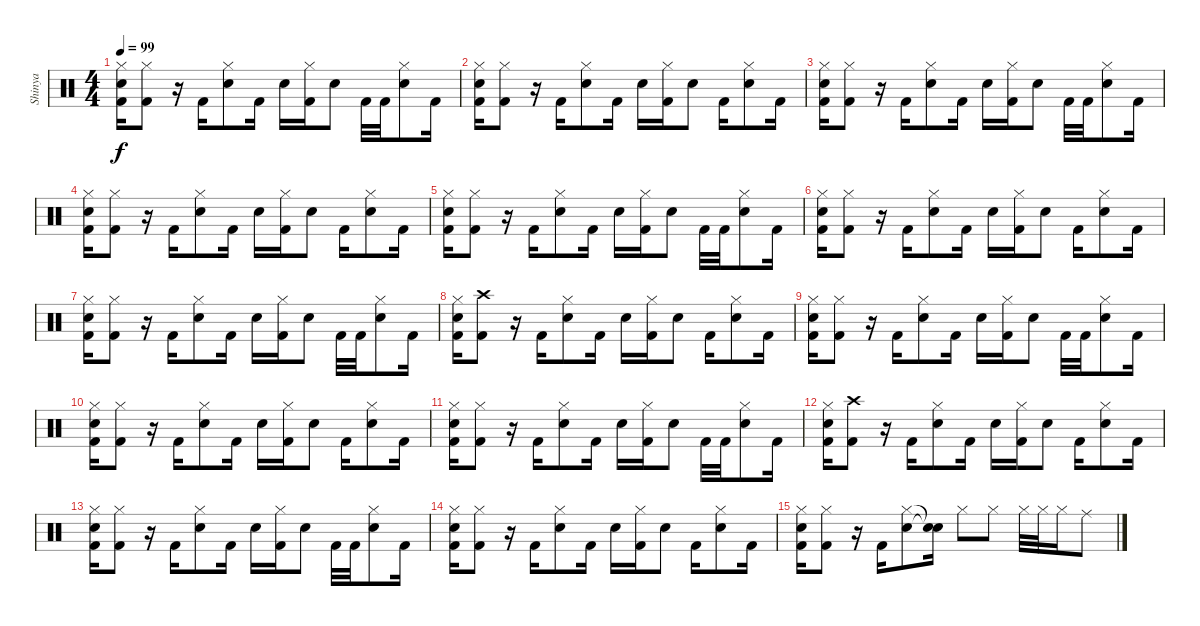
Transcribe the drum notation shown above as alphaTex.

\track ("Shinya" "Shinya") {instrument percussion}
\staff {score}
\articulation defaults
\ts (4 4)
\tempo 99
\clef neutral
\ks c
("Hi-Hat (closed)" "Snare (hit) 2" "Kick (hit) 2").16{dy f} ("Hi-Hat (closed)" "Kick (hit) 2").8 r.16 "Kick (hit) 2".16 ("Hi-Hat (closed)" "Snare (hit) 2").8 "Kick (hit) 2".16 "Snare (hit) 2".16 ("Hi-Hat (closed)" "Kick (hit) 2").16 "Snare (hit) 2".8 "Kick (hit) 2".32 "Kick (hit) 2".32 ("Hi-Hat (closed)" "Snare (hit) 2").8 "Kick (hit) 2".16 |
("Hi-Hat (closed)" "Snare (hit) 2" "Kick (hit) 2").16 ("Hi-Hat (closed)" "Kick (hit) 2").8 r.16 "Kick (hit) 2".16 ("Hi-Hat (closed)" "Snare (hit) 2").8 "Kick (hit) 2".16 "Snare (hit) 2".16 ("Hi-Hat (closed)" "Kick (hit) 2").16 "Snare (hit) 2".8 "Kick (hit) 2".16 ("Hi-Hat (closed)" "Snare (hit) 2").8 "Kick (hit) 2".16 |
("Hi-Hat (closed)" "Snare (hit) 2" "Kick (hit) 2").16 ("Hi-Hat (closed)" "Kick (hit) 2").8 r.16 "Kick (hit) 2".16 ("Hi-Hat (closed)" "Snare (hit) 2").8 "Kick (hit) 2".16 "Snare (hit) 2".16 ("Hi-Hat (closed)" "Kick (hit) 2").16 "Snare (hit) 2".8 "Kick (hit) 2".32 "Kick (hit) 2".32 ("Hi-Hat (closed)" "Snare (hit) 2").8 "Kick (hit) 2".16 |
("Hi-Hat (closed)" "Snare (hit) 2" "Kick (hit) 2").16 ("Hi-Hat (closed)" "Kick (hit) 2").8 r.16 "Kick (hit) 2".16 ("Hi-Hat (closed)" "Snare (hit) 2").8 "Kick (hit) 2".16 "Snare (hit) 2".16 ("Hi-Hat (closed)" "Kick (hit) 2").16 "Snare (hit) 2".8 "Kick (hit) 2".16 ("Hi-Hat (closed)" "Snare (hit) 2").8 "Kick (hit) 2".16 |
("Hi-Hat (closed)" "Snare (hit) 2" "Kick (hit) 2").16 ("Hi-Hat (closed)" "Kick (hit) 2").8 r.16 "Kick (hit) 2".16 ("Hi-Hat (closed)" "Snare (hit) 2").8 "Kick (hit) 2".16 "Snare (hit) 2".16 ("Hi-Hat (closed)" "Kick (hit) 2").16 "Snare (hit) 2".8 "Kick (hit) 2".32 "Kick (hit) 2".32 ("Hi-Hat (closed)" "Snare (hit) 2").8 "Kick (hit) 2".16 |
("Hi-Hat (closed)" "Snare (hit) 2" "Kick (hit) 2").16 ("Hi-Hat (closed)" "Kick (hit) 2").8 r.16 "Kick (hit) 2".16 ("Hi-Hat (closed)" "Snare (hit) 2").8 "Kick (hit) 2".16 "Snare (hit) 2".16 ("Hi-Hat (closed)" "Kick (hit) 2").16 "Snare (hit) 2".8 "Kick (hit) 2".16 ("Hi-Hat (closed)" "Snare (hit) 2").8 "Kick (hit) 2".16 |
("Hi-Hat (closed)" "Snare (hit) 2" "Kick (hit) 2").16 ("Hi-Hat (closed)" "Kick (hit) 2").8 r.16 "Kick (hit) 2".16 ("Hi-Hat (closed)" "Snare (hit) 2").8 "Kick (hit) 2".16 "Snare (hit) 2".16 ("Hi-Hat (closed)" "Kick (hit) 2").16 "Snare (hit) 2".8 "Kick (hit) 2".32 "Kick (hit) 2".32 ("Hi-Hat (closed)" "Snare (hit) 2").8 "Kick (hit) 2".16 |
("Hi-Hat (closed)" "Snare (hit) 2" "Kick (hit) 2").16 ("Crash high (hit)" "Kick (hit) 2").8 r.16 "Kick (hit) 2".16 ("Hi-Hat (closed)" "Snare (hit) 2").8 "Kick (hit) 2".16 "Snare (hit) 2".16 ("Hi-Hat (closed)" "Kick (hit) 2").16 "Snare (hit) 2".8 "Kick (hit) 2".16 ("Hi-Hat (closed)" "Snare (hit) 2").8 "Kick (hit) 2".16 |
("Hi-Hat (closed)" "Snare (hit) 2" "Kick (hit) 2").16 ("Hi-Hat (closed)" "Kick (hit) 2").8 r.16 "Kick (hit) 2".16 ("Hi-Hat (closed)" "Snare (hit) 2").8 "Kick (hit) 2".16 "Snare (hit) 2".16 ("Hi-Hat (closed)" "Kick (hit) 2").16 "Snare (hit) 2".8 "Kick (hit) 2".32 "Kick (hit) 2".32 ("Hi-Hat (closed)" "Snare (hit) 2").8 "Kick (hit) 2".16 |
("Hi-Hat (closed)" "Snare (hit) 2" "Kick (hit) 2").16 ("Hi-Hat (closed)" "Kick (hit) 2").8 r.16 "Kick (hit) 2".16 ("Hi-Hat (closed)" "Snare (hit) 2").8 "Kick (hit) 2".16 "Snare (hit) 2".16 ("Hi-Hat (closed)" "Kick (hit) 2").16 "Snare (hit) 2".8 "Kick (hit) 2".16 ("Hi-Hat (closed)" "Snare (hit) 2").8 "Kick (hit) 2".16 |
("Hi-Hat (closed)" "Snare (hit) 2" "Kick (hit) 2").16 ("Hi-Hat (closed)" "Kick (hit) 2").8 r.16 "Kick (hit) 2".16 ("Hi-Hat (closed)" "Snare (hit) 2").8 "Kick (hit) 2".16 "Snare (hit) 2".16 ("Hi-Hat (closed)" "Kick (hit) 2").16 "Snare (hit) 2".8 "Kick (hit) 2".32 "Kick (hit) 2".32 ("Hi-Hat (closed)" "Snare (hit) 2").8 "Kick (hit) 2".16 |
("Hi-Hat (closed)" "Snare (hit) 2" "Kick (hit) 2").16 ("Crash high (hit)" "Kick (hit) 2").8 r.16 "Kick (hit) 2".16 ("Hi-Hat (closed)" "Snare (hit) 2").8 "Kick (hit) 2".16 "Snare (hit) 2".16 ("Hi-Hat (closed)" "Kick (hit) 2").16 "Snare (hit) 2".8 "Kick (hit) 2".16 ("Hi-Hat (closed)" "Snare (hit) 2").8 "Kick (hit) 2".16 |
("Hi-Hat (closed)" "Snare (hit) 2" "Kick (hit) 2").16 ("Hi-Hat (closed)" "Kick (hit) 2").8 r.16 "Kick (hit) 2".16 ("Hi-Hat (closed)" "Snare (hit) 2").8 "Kick (hit) 2".16 "Snare (hit) 2".16 ("Hi-Hat (closed)" "Kick (hit) 2").16 "Snare (hit) 2".8 "Kick (hit) 2".32 "Kick (hit) 2".32 ("Hi-Hat (closed)" "Snare (hit) 2").8 "Kick (hit) 2".16 |
("Hi-Hat (closed)" "Snare (hit) 2" "Kick (hit) 2").16 ("Hi-Hat (closed)" "Kick (hit) 2").8 r.16 "Kick (hit) 2".16 ("Hi-Hat (closed)" "Snare (hit) 2").8 "Kick (hit) 2".16 "Snare (hit) 2".16 ("Hi-Hat (closed)" "Kick (hit) 2").16 "Snare (hit) 2".8 "Kick (hit) 2".16 ("Hi-Hat (closed)" "Snare (hit) 2").8 "Kick (hit) 2".16 |
("Hi-Hat (closed)" "Snare (hit) 2" "Kick (hit) 2").16 ("Hi-Hat (closed)" "Kick (hit) 2").8 r.16 "Kick (hit) 2".16 ("Hi-Hat (closed)" "Snare (hit) 2").8 ("Snare (hit)"{t} "Snare (hit)"{t}).16 "Hi-Hat (closed)".8 "Hi-Hat (closed)".8 "Hi-Hat (closed)".32 "Hi-Hat (closed)".32 "Hi-Hat (closed)".16 "Ride (middle)".8
